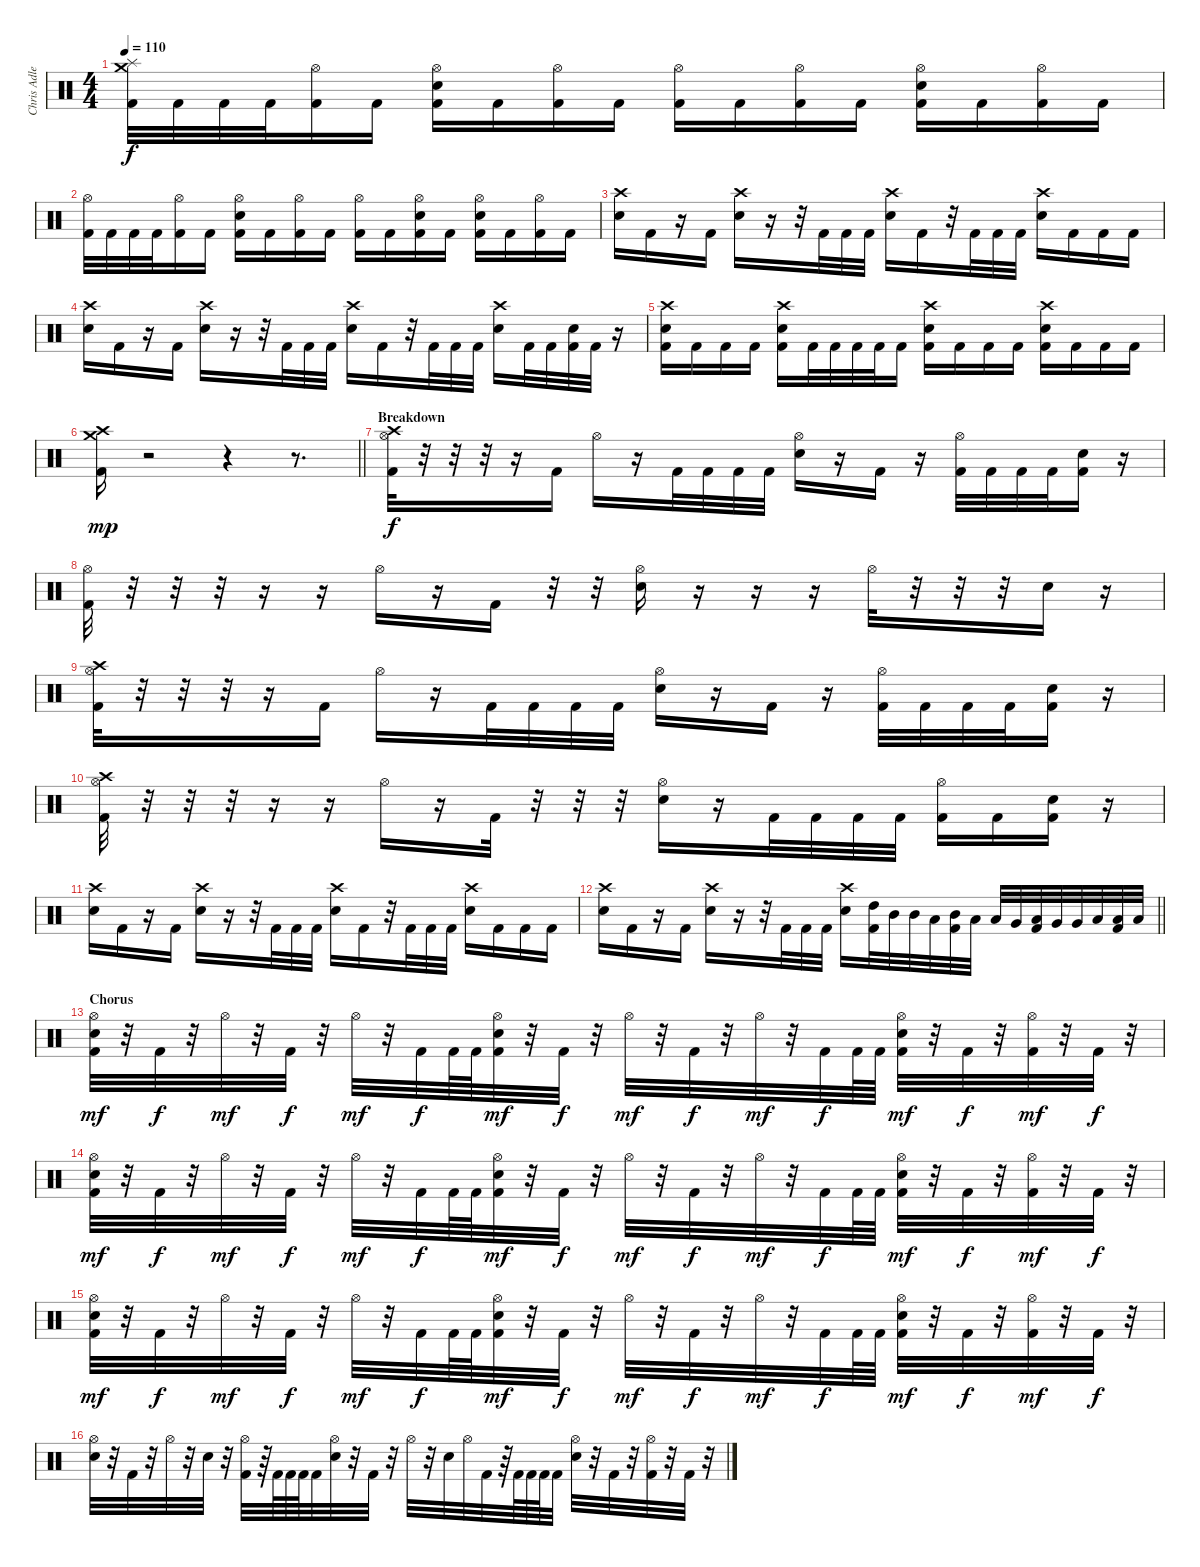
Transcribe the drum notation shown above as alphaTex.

\track ("Chris Adler" "Chris Adle") {instrument percussion}
\staff {score}
\articulation defaults
\ts (4 4)
\tempo 110
\clef neutral
\ks c
("Kick (hit) 2" "Splash (hit)" "Crash medium (hit)").32{dy f} "Kick (hit) 2".32 "Kick (hit) 2".32 "Kick (hit) 2".32 ("Kick (hit) 2" "Hi-Hat (open)").16 "Kick (hit) 2".16 ("Kick (hit) 2" "Electric Snare (hit)" "Hi-Hat (open)").16 "Kick (hit) 2".16 ("Kick (hit) 2" "Hi-Hat (open)").16 "Kick (hit) 2".16 ("Kick (hit) 2" "Hi-Hat (open)").16 "Kick (hit) 2".16 ("Kick (hit) 2" "Hi-Hat (open)").16 "Kick (hit) 2".16 ("Kick (hit) 2" "Electric Snare (hit)" "Hi-Hat (open)").16 "Kick (hit) 2".16 ("Kick (hit) 2" "Hi-Hat (open)").16 "Kick (hit) 2".16 |
("Kick (hit) 2" "Hi-Hat (open)").32 "Kick (hit) 2".32 "Kick (hit) 2".32 "Kick (hit) 2".32 ("Kick (hit) 2" "Hi-Hat (open)").16 "Kick (hit) 2".16 ("Kick (hit) 2" "Electric Snare (hit)" "Hi-Hat (open)").16 "Kick (hit) 2".16 ("Kick (hit) 2" "Hi-Hat (open)").16 "Kick (hit) 2".16 ("Kick (hit) 2" "Hi-Hat (open)").16 "Kick (hit) 2".16 ("Kick (hit) 2" "Electric Snare (hit)" "Hi-Hat (open)").16 "Kick (hit) 2".16 ("Kick (hit) 2" "Electric Snare (hit)" "Hi-Hat (open)").16 "Kick (hit) 2".16 ("Kick (hit) 2" "Hi-Hat (open)").16 "Kick (hit) 2".16 |
("Electric Snare (hit)" "Crash high (hit)").16 "Kick (hit) 2".16 r.16 "Kick (hit) 2".16 ("Electric Snare (hit)" "Crash high (hit)").16 r.16 r.32 "Kick (hit) 2".32 "Kick (hit) 2".32 "Kick (hit) 2".32 ("Electric Snare (hit)" "Crash high (hit)").16 "Kick (hit) 2".16 r.32 "Kick (hit) 2".32 "Kick (hit) 2".32 "Kick (hit) 2".32 ("Electric Snare (hit)" "Crash high (hit)").16 "Kick (hit) 2".16 "Kick (hit) 2".16 "Kick (hit) 2".16 |
("Electric Snare (hit)" "Crash high (hit)").16 "Kick (hit) 2".16 r.16 "Kick (hit) 2".16 ("Electric Snare (hit)" "Crash high (hit)").16 r.16 r.32 "Kick (hit) 2".32 "Kick (hit) 2".32 "Kick (hit) 2".32 ("Electric Snare (hit)" "Crash high (hit)").16 "Kick (hit) 2".16 r.32 "Kick (hit) 2".32 "Kick (hit) 2".32 "Kick (hit) 2".32 ("Electric Snare (hit)" "Crash high (hit)").16 "Kick (hit) 2".32 "Kick (hit) 2".32 ("Kick (hit) 2" "Electric Snare (hit)").32 "Kick (hit) 2".32 r.16 |
("Kick (hit) 2" "Electric Snare (hit)" "Crash high (hit)").16 "Kick (hit) 2".16 "Kick (hit) 2".16 "Kick (hit) 2".16 ("Kick (hit) 2" "Electric Snare (hit)" "Crash high (hit)").16 "Kick (hit) 2".32 "Kick (hit) 2".32 "Kick (hit) 2".32 "Kick (hit) 2".32 "Kick (hit) 2".16 ("Kick (hit) 2" "Electric Snare (hit)" "Crash high (hit)").16 "Kick (hit) 2".16 "Kick (hit) 2".16 "Kick (hit) 2".16 ("Kick (hit) 2" "Electric Snare (hit)" "Crash high (hit)").16 "Kick (hit) 2".16 "Kick (hit) 2".16 "Kick (hit) 2".16 |
\barLineRight lightlight
("Kick (hit) 2" "Crash medium (hit)" "Crash high (hit)").16{dy mp} r.2 r.4 r.8{d} |
\section ("" "Breakdown")
("Kick (hit) 2" "Crash high (hit)" "Hi-Hat (open)").32{dy f} r.32 r.32 r.32 r.16 "Kick (hit) 2".16 "Hi-Hat (open)".16 r.16 "Kick (hit) 2".32 "Kick (hit) 2".32 "Kick (hit) 2".32 "Kick (hit) 2".32 ("Electric Snare (hit)" "Hi-Hat (open)").16 r.16 "Kick (hit) 2".16 r.16 ("Kick (hit) 2" "Hi-Hat (open)").32 "Kick (hit) 2".32 "Kick (hit) 2".32 "Kick (hit) 2".32 ("Kick (hit) 2" "Electric Snare (hit)").16 r.16 |
("Kick (hit) 2" "Hi-Hat (open)").32 r.32 r.32 r.32 r.16 r.16 "Hi-Hat (open)".16 r.16 "Kick (hit) 2".16 r.32 r.32 ("Electric Snare (hit)" "Hi-Hat (open)").16 r.16 r.16 r.16 "Hi-Hat (open)".32 r.32 r.32 r.32 "Electric Snare (hit)".16 r.16 |
("Kick (hit) 2" "Crash high (hit)" "Hi-Hat (open)").32 r.32 r.32 r.32 r.16 "Kick (hit) 2".16 "Hi-Hat (open)".16 r.16 "Kick (hit) 2".32 "Kick (hit) 2".32 "Kick (hit) 2".32 "Kick (hit) 2".32 ("Electric Snare (hit)" "Hi-Hat (open)").16 r.16 "Kick (hit) 2".16 r.16 ("Kick (hit) 2" "Hi-Hat (open)").32 "Kick (hit) 2".32 "Kick (hit) 2".32 "Kick (hit) 2".32 ("Kick (hit) 2" "Electric Snare (hit)").16 r.16 |
("Kick (hit) 2" "Crash high (hit)" "Hi-Hat (open)").32 r.32 r.32 r.32 r.16 r.16 "Hi-Hat (open)".16 r.16 "Kick (hit) 2".32 r.32 r.32 r.32 ("Electric Snare (hit)" "Hi-Hat (open)").16 r.16 "Kick (hit) 2".32 "Kick (hit) 2".32 "Kick (hit) 2".32 "Kick (hit) 2".32 ("Kick (hit) 2" "Hi-Hat (open)").16 "Kick (hit) 2".16 ("Kick (hit) 2" "Electric Snare (hit)").16 r.16 |
("Electric Snare (hit)" "Crash high (hit)").16 "Kick (hit) 2".16 r.16 "Kick (hit) 2".16 ("Electric Snare (hit)" "Crash high (hit)").16 r.16 r.32 "Kick (hit) 2".32 "Kick (hit) 2".32 "Kick (hit) 2".32 ("Electric Snare (hit)" "Crash high (hit)").16 "Kick (hit) 2".16 r.32 "Kick (hit) 2".32 "Kick (hit) 2".32 "Kick (hit) 2".32 ("Electric Snare (hit)" "Crash high (hit)").16 "Kick (hit) 2".16 "Kick (hit) 2".16 "Kick (hit) 2".16 |
\barLineRight lightlight
("Electric Snare (hit)" "Crash high (hit)").16 "Kick (hit) 2".16 r.16 "Kick (hit) 2".16 ("Electric Snare (hit)" "Crash high (hit)").16 r.16 r.32 "Kick (hit) 2".32 "Kick (hit) 2".32 "Kick (hit) 2".32 ("Electric Snare (hit)" "Crash high (hit)").16 ("Kick (hit) 2" "High Tom (hit)").32 "Mid Tom (hit)".32 "Mid Tom (hit)".32 "Low Tom (hit)".32 ("Kick (hit) 2" "Mid Tom (hit)").32 "Low Tom (hit)".32 "Low Tom (hit)".32 "Very Low Tom (hit)".32 ("Kick (hit) 2" "Low Tom (hit)").32 "Very Low Tom (hit)".32 "Very Low Tom (hit)".32 "Low Floor Tom (hit)".32 ("Kick (hit) 2" "Low Floor Tom (hit)").32 "Low Floor Tom (hit)".32 |
\section ("" "Chorus")
("Kick (hit) 2" "Electric Snare (hit)" "Hi-Hat (open)").32{dy mf} r.32 "Kick (hit) 2".32{dy f} r.32 "Hi-Hat (open)".32{dy mf} r.32 "Kick (hit) 2".32{dy f} r.32 "Hi-Hat (open)".32{dy mf} r.32 "Kick (hit) 2".32{dy f} "Kick (hit) 2".64 "Kick (hit) 2".64 ("Kick (hit) 2" "Electric Snare (hit)" "Hi-Hat (open)").32{dy mf} r.32 "Kick (hit) 2".32{dy f} r.32 "Hi-Hat (open)".32{dy mf} r.32 "Kick (hit) 2".32{dy f} r.32 "Hi-Hat (open)".32{dy mf} r.32 "Kick (hit) 2".32{dy f} "Kick (hit) 2".64 "Kick (hit) 2".64 ("Kick (hit) 2" "Electric Snare (hit)" "Hi-Hat (open)").32{dy mf} r.32 "Kick (hit) 2".32{dy f} r.32 ("Kick (hit) 2" "Hi-Hat (open)").32{dy mf} r.32 "Kick (hit) 2".32{dy f} r.32 |
("Kick (hit) 2" "Electric Snare (hit)" "Hi-Hat (open)").32{dy mf} r.32 "Kick (hit) 2".32{dy f} r.32 "Hi-Hat (open)".32{dy mf} r.32 "Kick (hit) 2".32{dy f} r.32 "Hi-Hat (open)".32{dy mf} r.32 "Kick (hit) 2".32{dy f} "Kick (hit) 2".64 "Kick (hit) 2".64 ("Kick (hit) 2" "Electric Snare (hit)" "Hi-Hat (open)").32{dy mf} r.32 "Kick (hit) 2".32{dy f} r.32 "Hi-Hat (open)".32{dy mf} r.32 "Kick (hit) 2".32{dy f} r.32 "Hi-Hat (open)".32{dy mf} r.32 "Kick (hit) 2".32{dy f} "Kick (hit) 2".64 "Kick (hit) 2".64 ("Kick (hit) 2" "Electric Snare (hit)" "Hi-Hat (open)").32{dy mf} r.32 "Kick (hit) 2".32{dy f} r.32 ("Kick (hit) 2" "Hi-Hat (open)").32{dy mf} r.32 "Kick (hit) 2".32{dy f} r.32 |
("Kick (hit) 2" "Electric Snare (hit)" "Hi-Hat (open)").32{dy mf} r.32 "Kick (hit) 2".32{dy f} r.32 "Hi-Hat (open)".32{dy mf} r.32 "Kick (hit) 2".32{dy f} r.32 "Hi-Hat (open)".32{dy mf} r.32 "Kick (hit) 2".32{dy f} "Kick (hit) 2".64 "Kick (hit) 2".64 ("Kick (hit) 2" "Electric Snare (hit)" "Hi-Hat (open)").32{dy mf} r.32 "Kick (hit) 2".32{dy f} r.32 "Hi-Hat (open)".32{dy mf} r.32 "Kick (hit) 2".32{dy f} r.32 "Hi-Hat (open)".32{dy mf} r.32 "Kick (hit) 2".32{dy f} "Kick (hit) 2".64 "Kick (hit) 2".64 ("Kick (hit) 2" "Electric Snare (hit)" "Hi-Hat (open)").32{dy mf} r.32 "Kick (hit) 2".32{dy f} r.32 ("Kick (hit) 2" "Hi-Hat (open)").32{dy mf} r.32 "Kick (hit) 2".32{dy f} r.32 |
("Electric Snare (hit)" "Hi-Hat (open)").32 r.32 "Kick (hit) 2".32 r.32 "Hi-Hat (open)".32 r.32 "Electric Snare (hit)".32 r.32 ("Kick (hit) 2" "Hi-Hat (open)").32 r.64 "Kick (hit) 2".64 "Kick (hit) 2".64 "Kick (hit) 2".64 "Kick (hit) 2".32 ("Electric Snare (hit)" "Hi-Hat (open)").32 r.32 "Kick (hit) 2".32 r.32 "Hi-Hat (open)".32 r.32 "Electric Snare (hit)".32 "Hi-Hat (open)".32 "Kick (hit) 2".32 r.64 "Kick (hit) 2".64 "Kick (hit) 2".64 "Kick (hit) 2".64 "Kick (hit) 2".32 ("Electric Snare (hit)" "Hi-Hat (open)").32 r.32 "Kick (hit) 2".32 r.32 ("Kick (hit) 2" "Hi-Hat (open)").32 r.32 "Kick (hit) 2".32 r.32
